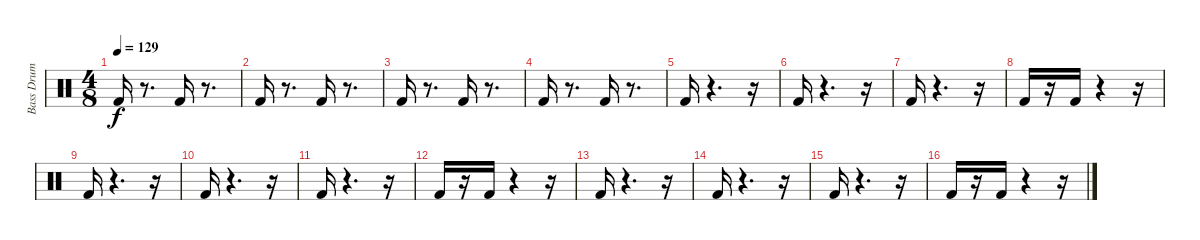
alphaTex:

\track ("Bass Drum" "Bass Drum") {instrument percussion}
\staff {score}
\articulation defaults
\ts (4 8)
\tempo 129
\clef neutral
\ks c "Kick (hit) 2".16{dy f}
r.8{d} "Kick (hit) 2".16 r.8{d} |
"Kick (hit) 2".16 r.8{d} "Kick (hit) 2".16 r.8{d} |
"Kick (hit) 2".16 r.8{d} "Kick (hit) 2".16 r.8{d} |
"Kick (hit) 2".16 r.8{d} "Kick (hit) 2".16 r.8{d} |
"Kick (hit) 2".16 r.4{d} r.16 |
"Kick (hit) 2".16 r.4{d} r.16 |
"Kick (hit) 2".16 r.4{d} r.16 |
"Kick (hit) 2".16 r.16 "Kick (hit) 2".16 r.4 r.16 |
"Kick (hit) 2".16 r.4{d} r.16 |
"Kick (hit) 2".16 r.4{d} r.16 |
"Kick (hit) 2".16 r.4{d} r.16 |
"Kick (hit) 2".16 r.16 "Kick (hit) 2".16 r.4 r.16 |
"Kick (hit) 2".16 r.4{d} r.16 |
"Kick (hit) 2".16 r.4{d} r.16 |
"Kick (hit) 2".16 r.4{d} r.16 |
"Kick (hit) 2".16 r.16 "Kick (hit) 2".16 r.4 r.16
